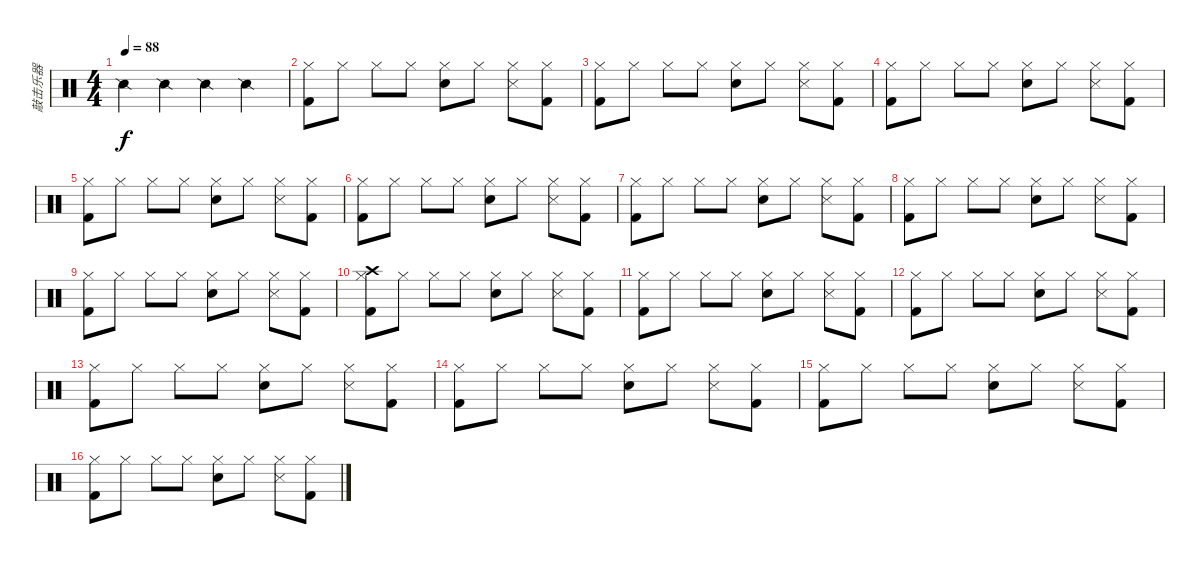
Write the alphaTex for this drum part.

\track ("敲击乐器" "敲击乐器") {instrument percussion}
\staff {score}
\articulation defaults
\ts (4 4)
\tempo 88
\clef neutral
\ks c "Snare (side stick) 2".4{dy f} "Snare (side stick) 2".4 "Snare (side stick) 2".4 "Snare (side stick) 2".4
|
("Kick (hit) 2" "Hi-Hat (closed)").8 "Hi-Hat (closed)".8 "Hi-Hat (closed)".8 "Hi-Hat (closed)".8 ("Hand Clap (hit)" "Hi-Hat (closed)").8 "Hi-Hat (closed)".8 ("Snare (side stick) 3" "Hi-Hat (closed)").8 ("Kick (hit) 2" "Hi-Hat (closed)").8 |
("Kick (hit) 2" "Hi-Hat (closed)").8 "Hi-Hat (closed)".8 "Hi-Hat (closed)".8 "Hi-Hat (closed)".8 ("Snare (hit) 2" "Hi-Hat (closed)").8 "Hi-Hat (closed)".8 ("Snare (side stick) 3" "Hi-Hat (closed)").8 ("Kick (hit) 2" "Hi-Hat (closed)").8 |
("Kick (hit) 2" "Hi-Hat (closed)").8 "Hi-Hat (closed)".8 "Hi-Hat (closed)".8 "Hi-Hat (closed)".8 ("Hand Clap (hit)" "Hi-Hat (closed)").8 "Hi-Hat (closed)".8 ("Snare (side stick) 3" "Hi-Hat (closed)").8 ("Kick (hit) 2" "Hi-Hat (closed)").8 |
("Kick (hit) 2" "Hi-Hat (closed)").8 "Hi-Hat (closed)".8 "Hi-Hat (closed)".8 "Hi-Hat (closed)".8 ("Snare (hit) 2" "Hi-Hat (closed)").8 "Hi-Hat (closed)".8 ("Snare (side stick) 3" "Hi-Hat (closed)").8 ("Kick (hit) 2" "Hi-Hat (closed)").8 |
("Kick (hit) 2" "Hi-Hat (closed)").8 "Hi-Hat (closed)".8 "Hi-Hat (closed)".8 "Hi-Hat (closed)".8 ("Hand Clap (hit)" "Hi-Hat (closed)").8 "Hi-Hat (closed)".8 ("Snare (side stick) 3" "Hi-Hat (closed)").8 ("Kick (hit) 2" "Hi-Hat (closed)").8 |
("Kick (hit) 2" "Hi-Hat (closed)").8 "Hi-Hat (closed)".8 "Hi-Hat (closed)".8 "Hi-Hat (closed)".8 ("Snare (hit) 2" "Hi-Hat (closed)").8 "Hi-Hat (closed)".8 ("Snare (side stick) 3" "Hi-Hat (closed)").8 ("Kick (hit) 2" "Hi-Hat (closed)").8 |
("Kick (hit) 2" "Hi-Hat (closed)").8 "Hi-Hat (closed)".8 "Hi-Hat (closed)".8 "Hi-Hat (closed)".8 ("Hand Clap (hit)" "Hi-Hat (closed)").8 "Hi-Hat (closed)".8 ("Snare (side stick) 3" "Hi-Hat (closed)").8 ("Kick (hit) 2" "Hi-Hat (closed)").8 |
("Kick (hit) 2" "Hi-Hat (closed)").8 "Hi-Hat (closed)".8 "Hi-Hat (closed)".8 "Hi-Hat (closed)".8 ("Snare (hit) 2" "Hi-Hat (closed)").8 "Hi-Hat (closed)".8 ("Snare (side stick) 3" "Hi-Hat (closed)").8 ("Kick (hit) 2" "Hi-Hat (closed)").8 |
("Kick (hit) 2" "Crash high (hit)" "Hi-Hat (closed)").8 "Hi-Hat (closed)".8 "Hi-Hat (closed)".8 "Hi-Hat (closed)".8 ("Hand Clap (hit)" "Hi-Hat (closed)").8 "Hi-Hat (closed)".8 ("Snare (side stick) 3" "Hi-Hat (closed)").8 ("Kick (hit) 2" "Hi-Hat (closed)").8 |
("Kick (hit) 2" "Hi-Hat (closed)").8 "Hi-Hat (closed)".8 "Hi-Hat (closed)".8 "Hi-Hat (closed)".8 ("Snare (hit) 2" "Hi-Hat (closed)").8 "Hi-Hat (closed)".8 ("Snare (side stick) 3" "Hi-Hat (closed)").8 ("Kick (hit) 2" "Hi-Hat (closed)").8 |
("Kick (hit) 2" "Hi-Hat (closed)").8 "Hi-Hat (closed)".8 "Hi-Hat (closed)".8 "Hi-Hat (closed)".8 ("Hand Clap (hit)" "Hi-Hat (closed)").8 "Hi-Hat (closed)".8 ("Snare (side stick) 3" "Hi-Hat (closed)").8 ("Kick (hit) 2" "Hi-Hat (closed)").8 |
("Kick (hit) 2" "Hi-Hat (closed)").8 "Hi-Hat (closed)".8 "Hi-Hat (closed)".8 "Hi-Hat (closed)".8 ("Snare (hit) 2" "Hi-Hat (closed)").8 "Hi-Hat (closed)".8 ("Snare (side stick) 3" "Hi-Hat (closed)").8 ("Kick (hit) 2" "Hi-Hat (closed)").8 |
("Kick (hit) 2" "Hi-Hat (closed)").8 "Hi-Hat (closed)".8 "Hi-Hat (closed)".8 "Hi-Hat (closed)".8 ("Hand Clap (hit)" "Hi-Hat (closed)").8 "Hi-Hat (closed)".8 ("Snare (side stick) 3" "Hi-Hat (closed)").8 ("Kick (hit) 2" "Hi-Hat (closed)").8 |
("Kick (hit) 2" "Hi-Hat (closed)").8 "Hi-Hat (closed)".8 "Hi-Hat (closed)".8 "Hi-Hat (closed)".8 ("Snare (hit) 2" "Hi-Hat (closed)").8 "Hi-Hat (closed)".8 ("Snare (side stick) 3" "Hi-Hat (closed)").8 ("Kick (hit) 2" "Hi-Hat (closed)").8 |
("Kick (hit) 2" "Hi-Hat (closed)").8 "Hi-Hat (closed)".8 "Hi-Hat (closed)".8 "Hi-Hat (closed)".8 ("Hand Clap (hit)" "Hi-Hat (closed)").8 "Hi-Hat (closed)".8 ("Snare (side stick) 3" "Hi-Hat (closed)").8 ("Kick (hit) 2" "Hi-Hat (closed)").8
